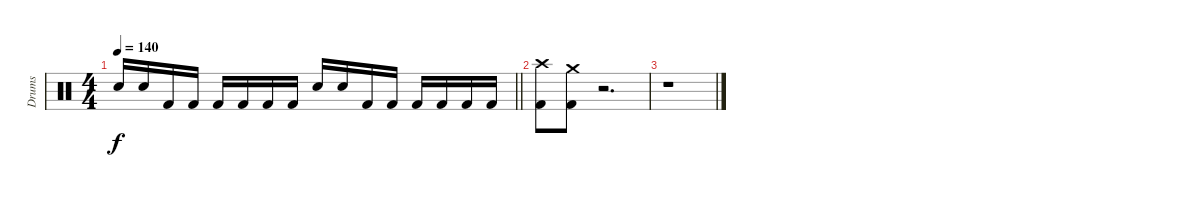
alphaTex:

\track ("Drums" "Drums") {instrument percussion}
\staff {score}
\articulation defaults
\ts (4 4)
\tempo 140
\clef neutral
\barLineRight lightlight
\ks c "Snare (hit) 2".16{dy f} "Snare (hit) 2".16 "Kick (hit) 2".16 "Kick (hit) 2".16 "Kick (hit) 2".16 "Kick (hit) 2".16 "Kick (hit) 2".16 "Kick (hit) 2".16 "Snare (hit) 2".16 "Snare (hit) 2".16 "Kick (hit) 2".16 "Kick (hit) 2".16 "Kick (hit) 2".16 "Kick (hit) 2".16 "Kick (hit) 2".16 "Kick (hit) 2".16
|
("Crash high (hit)" "Kick (hit) 2").8 ("Crash medium (hit)" "Kick (hit) 2").8 r.2{d} |
r.1
